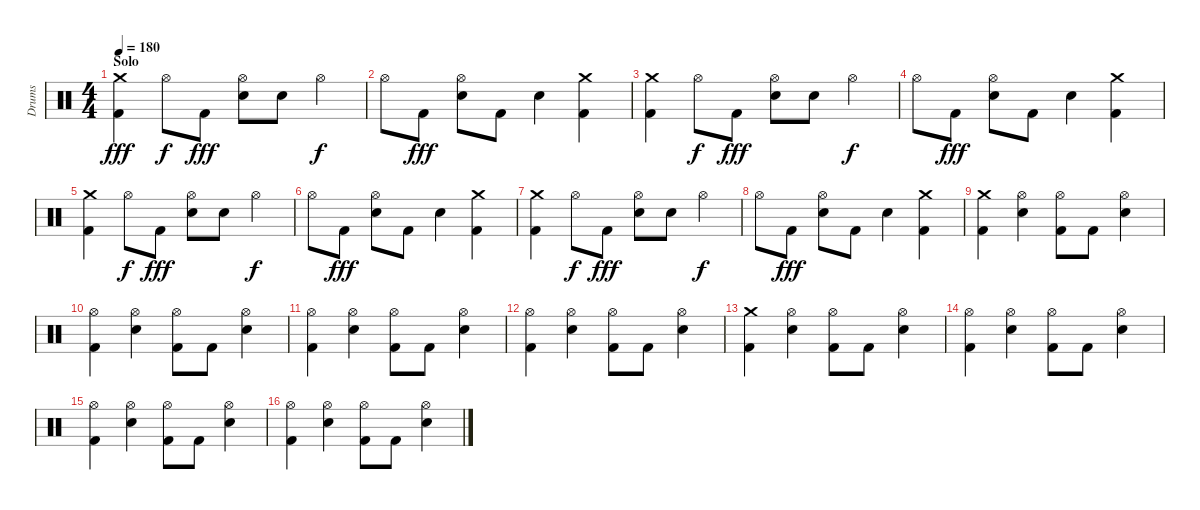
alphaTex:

\track ("Drums" "Drums") {instrument percussion}
\staff {score}
\articulation defaults
\ts (4 4)
\section ("" "Solo")
\tempo 180
\clef neutral
\ks c
("Crash medium (hit)" "Kick (hit) 2").4{dy fff} "Hi-Hat (open)".8{dy f} "Kick (hit) 2".8{dy fff} ("Hi-Hat (open)" "Electric Snare (hit)").8 "Electric Snare (hit)".8 "Hi-Hat (open)".4{dy f} |
"Hi-Hat (open)".8 "Kick (hit) 2".8{dy fff} ("Hi-Hat (open)" "Electric Snare (hit)").8 "Kick (hit) 2".8 "Electric Snare (hit)".4 ("Crash medium (hit)" "Kick (hit) 2").4 |
("Crash medium (hit)" "Kick (hit) 2").4 "Hi-Hat (open)".8{dy f} "Kick (hit) 2".8{dy fff} ("Hi-Hat (open)" "Electric Snare (hit)").8 "Electric Snare (hit)".8 "Hi-Hat (open)".4{dy f} |
"Hi-Hat (open)".8 "Kick (hit) 2".8{dy fff} ("Hi-Hat (open)" "Electric Snare (hit)").8 "Kick (hit) 2".8 "Electric Snare (hit)".4 ("Crash medium (hit)" "Kick (hit) 2").4 |
("Crash medium (hit)" "Kick (hit) 2").4 "Hi-Hat (open)".8{dy f} "Kick (hit) 2".8{dy fff} ("Hi-Hat (open)" "Electric Snare (hit)").8 "Electric Snare (hit)".8 "Hi-Hat (open)".4{dy f} |
"Hi-Hat (open)".8 "Kick (hit) 2".8{dy fff} ("Hi-Hat (open)" "Electric Snare (hit)").8 "Kick (hit) 2".8 "Electric Snare (hit)".4 ("Crash medium (hit)" "Kick (hit) 2").4 |
("Crash medium (hit)" "Kick (hit) 2").4 "Hi-Hat (open)".8{dy f} "Kick (hit) 2".8{dy fff} ("Hi-Hat (open)" "Electric Snare (hit)").8 "Electric Snare (hit)".8 "Hi-Hat (open)".4{dy f} |
"Hi-Hat (open)".8 "Kick (hit) 2".8{dy fff} ("Hi-Hat (open)" "Electric Snare (hit)").8 "Kick (hit) 2".8 "Electric Snare (hit)".4 ("Crash medium (hit)" "Kick (hit) 2").4 |
("Crash medium (hit)" "Kick (hit) 2").4 ("Hi-Hat (open)" "Electric Snare (hit)").4 ("Hi-Hat (open)" "Kick (hit) 2").8 "Kick (hit) 2".8 ("Hi-Hat (open)" "Electric Snare (hit)").4 |
("Hi-Hat (open)" "Kick (hit) 2").4 ("Hi-Hat (open)" "Electric Snare (hit)").4 ("Hi-Hat (open)" "Kick (hit) 2").8 "Kick (hit) 2".8 ("Hi-Hat (open)" "Electric Snare (hit)").4 |
("Hi-Hat (open)" "Kick (hit) 2").4 ("Hi-Hat (open)" "Electric Snare (hit)").4 ("Hi-Hat (open)" "Kick (hit) 2").8 "Kick (hit) 2".8 ("Hi-Hat (open)" "Electric Snare (hit)").4 |
("Hi-Hat (open)" "Kick (hit) 2").4 ("Hi-Hat (open)" "Electric Snare (hit)").4 ("Hi-Hat (open)" "Kick (hit) 2").8 "Kick (hit) 2".8 ("Hi-Hat (open)" "Electric Snare (hit)").4 |
("Crash medium (hit)" "Kick (hit) 2").4 ("Hi-Hat (open)" "Electric Snare (hit)").4 ("Hi-Hat (open)" "Kick (hit) 2").8 "Kick (hit) 2".8 ("Hi-Hat (open)" "Electric Snare (hit)").4 |
("Hi-Hat (open)" "Kick (hit) 2").4 ("Hi-Hat (open)" "Electric Snare (hit)").4 ("Hi-Hat (open)" "Kick (hit) 2").8 "Kick (hit) 2".8 ("Hi-Hat (open)" "Electric Snare (hit)").4 |
("Hi-Hat (open)" "Kick (hit) 2").4 ("Hi-Hat (open)" "Electric Snare (hit)").4 ("Hi-Hat (open)" "Kick (hit) 2").8 "Kick (hit) 2".8 ("Hi-Hat (open)" "Electric Snare (hit)").4 |
("Hi-Hat (open)" "Kick (hit) 2").4 ("Hi-Hat (open)" "Electric Snare (hit)").4 ("Hi-Hat (open)" "Kick (hit) 2").8 "Kick (hit) 2".8 ("Hi-Hat (open)" "Electric Snare (hit)").4
